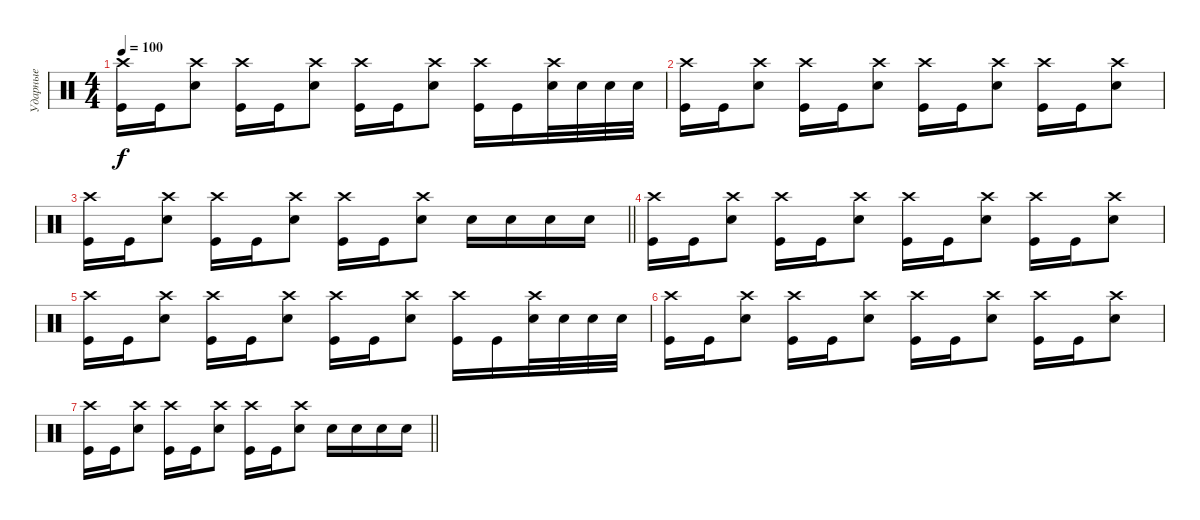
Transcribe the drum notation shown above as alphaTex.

\track ("Ударные" "Ударные") {instrument percussion}
\staff {score}
\articulation defaults
\ts (4 4)
\tempo 100
\clef neutral
\ks c
("Kick (hit)" "Crash high (hit)").16{dy f} "Kick (hit)".16 ("Crash high (hit)" "Snare (hit) 2").8 ("Kick (hit)" "Crash high (hit)").16 "Kick (hit)".16 ("Crash high (hit)" "Snare (hit) 2").8 ("Kick (hit)" "Crash high (hit)").16 "Kick (hit)".16 ("Crash high (hit)" "Snare (hit) 2").8 ("Kick (hit)" "Crash high (hit)").16 "Kick (hit)".16 ("Snare (hit) 2" "Crash high (hit)").32 "Snare (hit) 2".32 "Snare (hit) 2".32 "Snare (hit) 2".32 |
("Kick (hit)" "Crash high (hit)").16 "Kick (hit)".16 ("Crash high (hit)" "Snare (hit) 2").8 ("Kick (hit)" "Crash high (hit)").16 "Kick (hit)".16 ("Crash high (hit)" "Snare (hit) 2").8 ("Kick (hit)" "Crash high (hit)").16 "Kick (hit)".16 ("Crash high (hit)" "Snare (hit) 2").8 ("Kick (hit)" "Crash high (hit)").16 "Kick (hit)".16 ("Crash high (hit)" "Snare (hit) 2").8 |
\barLineRight lightlight
("Kick (hit)" "Crash high (hit)").16 "Kick (hit)".16 ("Crash high (hit)" "Snare (hit) 2").8 ("Kick (hit)" "Crash high (hit)").16 "Kick (hit)".16 ("Crash high (hit)" "Snare (hit) 2").8 ("Kick (hit)" "Crash high (hit)").16 "Kick (hit)".16 ("Crash high (hit)" "Snare (hit) 2").8 "Snare (hit) 2".16 "Snare (hit) 2".16 "Snare (hit) 2".16 "Snare (hit) 2".16 |
("Crash high (hit)" "Kick (hit)").16 "Kick (hit)".16 ("Snare (hit) 2" "Crash high (hit)").8 ("Kick (hit)" "Crash high (hit)").16 "Kick (hit)".16 ("Crash high (hit)" "Snare (hit) 2").8 ("Kick (hit)" "Crash high (hit)").16 "Kick (hit)".16 ("Crash high (hit)" "Snare (hit) 2").8 ("Kick (hit)" "Crash high (hit)").16 "Kick (hit)".16 ("Crash high (hit)" "Snare (hit) 2").8 |
("Kick (hit)" "Crash high (hit)").16 "Kick (hit)".16 ("Crash high (hit)" "Snare (hit) 2").8 ("Kick (hit)" "Crash high (hit)").16 "Kick (hit)".16 ("Crash high (hit)" "Snare (hit) 2").8 ("Kick (hit)" "Crash high (hit)").16 "Kick (hit)".16 ("Crash high (hit)" "Snare (hit) 2").8 ("Kick (hit)" "Crash high (hit)").16 "Kick (hit)".16 ("Snare (hit) 2" "Crash high (hit)").32 "Snare (hit) 2".32 "Snare (hit) 2".32 "Snare (hit) 2".32 |
("Kick (hit)" "Crash high (hit)").16 "Kick (hit)".16 ("Crash high (hit)" "Snare (hit) 2").8 ("Kick (hit)" "Crash high (hit)").16 "Kick (hit)".16 ("Crash high (hit)" "Snare (hit) 2").8 ("Kick (hit)" "Crash high (hit)").16 "Kick (hit)".16 ("Crash high (hit)" "Snare (hit) 2").8 ("Kick (hit)" "Crash high (hit)").16 "Kick (hit)".16 ("Crash high (hit)" "Snare (hit) 2").8 |
\barLineRight lightlight
("Kick (hit)" "Crash high (hit)").16 "Kick (hit)".16 ("Crash high (hit)" "Snare (hit) 2").8 ("Kick (hit)" "Crash high (hit)").16 "Kick (hit)".16 ("Crash high (hit)" "Snare (hit) 2").8 ("Kick (hit)" "Crash high (hit)").16 "Kick (hit)".16 ("Crash high (hit)" "Snare (hit) 2").8 "Snare (hit) 2".16 "Snare (hit) 2".16 "Snare (hit) 2".16 "Snare (hit) 2".16
